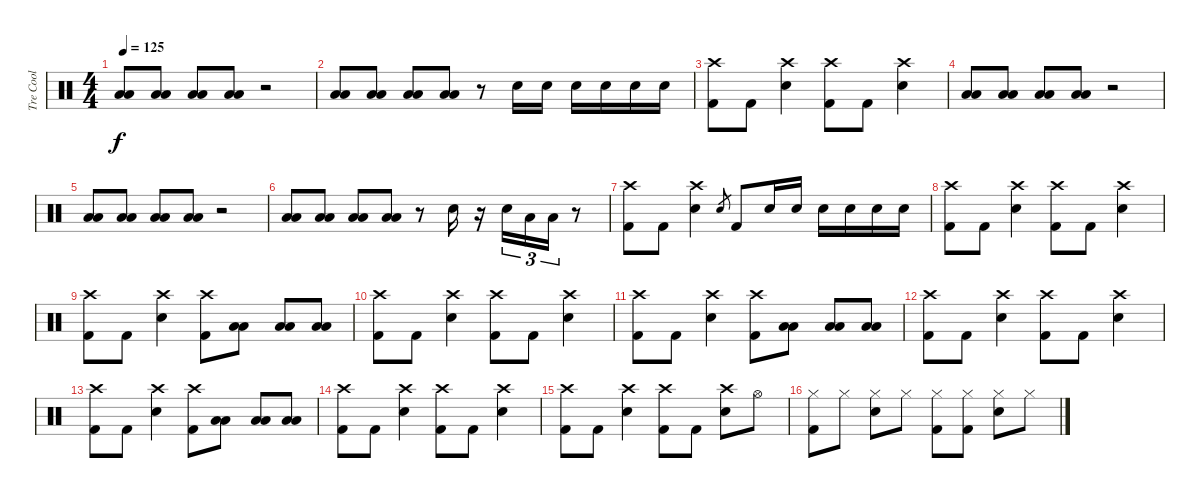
\track ("Tre Cool" "Tre Cool") {instrument percussion}
\staff {score}
\articulation defaults
\ts (4 4)
\tempo 125
\clef neutral
\ks c
("Low Floor Tom (hit)" "Low Tom (hit)").8{dy f} ("Low Floor Tom (hit)" "Low Tom (hit)").8 ("Low Floor Tom (hit)" "Low Tom (hit)").8 ("Low Floor Tom (hit)" "Low Tom (hit)").8 r.2 |
("Low Floor Tom (hit)" "Low Tom (hit)").8 ("Low Floor Tom (hit)" "Low Tom (hit)").8 ("Low Floor Tom (hit)" "Low Tom (hit)").8 ("Low Floor Tom (hit)" "Low Tom (hit)").8 r.8 "Electric Snare (hit)".16 "Electric Snare (hit)".16 "Electric Snare (hit)".16 "Electric Snare (hit)".16 "Electric Snare (hit)".16 "Electric Snare (hit)".16 |
("Crash high (hit)" "Kick (hit) 2").8 "Kick (hit) 2".8 ("Crash high (hit)" "Electric Snare (hit)").4 ("Crash high (hit)" "Kick (hit) 2").8 "Kick (hit) 2".8 ("Crash high (hit)" "Electric Snare (hit)").4 |
("Low Floor Tom (hit)" "Low Tom (hit)").8 ("Low Floor Tom (hit)" "Low Tom (hit)").8 ("Low Floor Tom (hit)" "Low Tom (hit)").8 ("Low Floor Tom (hit)" "Low Tom (hit)").8 r.2 |
("Low Floor Tom (hit)" "Low Tom (hit)").8 ("Low Floor Tom (hit)" "Low Tom (hit)").8 ("Low Floor Tom (hit)" "Low Tom (hit)").8 ("Low Floor Tom (hit)" "Low Tom (hit)").8 r.2 |
("Low Floor Tom (hit)" "Low Tom (hit)").8 ("Low Floor Tom (hit)" "Low Tom (hit)").8 ("Low Floor Tom (hit)" "Low Tom (hit)").8 ("Low Floor Tom (hit)" "Low Tom (hit)").8 r.8 "Electric Snare (hit)".16 r.16 "Electric Snare (hit)".16{tu (3 2)} "Low Tom (hit)".16{tu (3 2)} "Low Floor Tom (hit)".16{tu (3 2)} r.8 |
("Crash high (hit)" "Kick (hit) 2").8 "Kick (hit) 2".8 ("Crash high (hit)" "Electric Snare (hit)").4 "Electric Snare (hit)".8{gr} "Kick (hit) 2".8 "Electric Snare (hit)".16 "Electric Snare (hit)".16 "Electric Snare (hit)".16 "Electric Snare (hit)".16 "Electric Snare (hit)".16 "Electric Snare (hit)".16 |
("Crash high (hit)" "Kick (hit) 2").8 "Kick (hit) 2".8 ("Crash high (hit)" "Electric Snare (hit)").4 ("Crash high (hit)" "Kick (hit) 2").8 "Kick (hit) 2".8 ("Crash high (hit)" "Electric Snare (hit)").4 |
("Crash high (hit)" "Kick (hit) 2").8 "Kick (hit) 2".8 ("Crash high (hit)" "Electric Snare (hit)").4 ("Crash high (hit)" "Kick (hit) 2").8 ("Low Floor Tom (hit)" "Low Tom (hit)").8 ("Low Floor Tom (hit)" "Low Tom (hit)").8 ("Low Floor Tom (hit)" "Low Tom (hit)").8 |
("Crash high (hit)" "Kick (hit) 2").8 "Kick (hit) 2".8 ("Crash high (hit)" "Electric Snare (hit)").4 ("Crash high (hit)" "Kick (hit) 2").8 "Kick (hit) 2".8 ("Crash high (hit)" "Electric Snare (hit)").4 |
("Crash high (hit)" "Kick (hit) 2").8 "Kick (hit) 2".8 ("Crash high (hit)" "Electric Snare (hit)").4 ("Crash high (hit)" "Kick (hit) 2").8 ("Low Floor Tom (hit)" "Low Tom (hit)").8 ("Low Floor Tom (hit)" "Low Tom (hit)").8 ("Low Floor Tom (hit)" "Low Tom (hit)").8 |
("Crash high (hit)" "Kick (hit) 2").8 "Kick (hit) 2".8 ("Crash high (hit)" "Electric Snare (hit)").4 ("Crash high (hit)" "Kick (hit) 2").8 "Kick (hit) 2".8 ("Crash high (hit)" "Electric Snare (hit)").4 |
("Crash high (hit)" "Kick (hit) 2").8 "Kick (hit) 2".8 ("Crash high (hit)" "Electric Snare (hit)").4 ("Crash high (hit)" "Kick (hit) 2").8 ("Low Floor Tom (hit)" "Low Tom (hit)").8 ("Low Floor Tom (hit)" "Low Tom (hit)").8 ("Low Floor Tom (hit)" "Low Tom (hit)").8 |
("Crash high (hit)" "Kick (hit) 2").8 "Kick (hit) 2".8 ("Crash high (hit)" "Electric Snare (hit)").4 ("Crash high (hit)" "Kick (hit) 2").8 "Kick (hit) 2".8 ("Crash high (hit)" "Electric Snare (hit)").4 |
("Crash high (hit)" "Kick (hit) 2").8 "Kick (hit) 2".8 ("Crash high (hit)" "Electric Snare (hit)").4 ("Crash high (hit)" "Kick (hit) 2").8 "Kick (hit) 2".8 ("Crash high (hit)" "Electric Snare (hit)").8 "Hi-Hat (open)".8 |
("Hi-Hat (closed)" "Kick (hit) 2").8 "Hi-Hat (closed)".8 ("Hi-Hat (closed)" "Electric Snare (hit)").8 "Hi-Hat (closed)".8 ("Hi-Hat (closed)" "Kick (hit) 2").8 ("Hi-Hat (closed)" "Kick (hit) 2").8 ("Hi-Hat (closed)" "Electric Snare (hit)").8 "Hi-Hat (closed)".8
